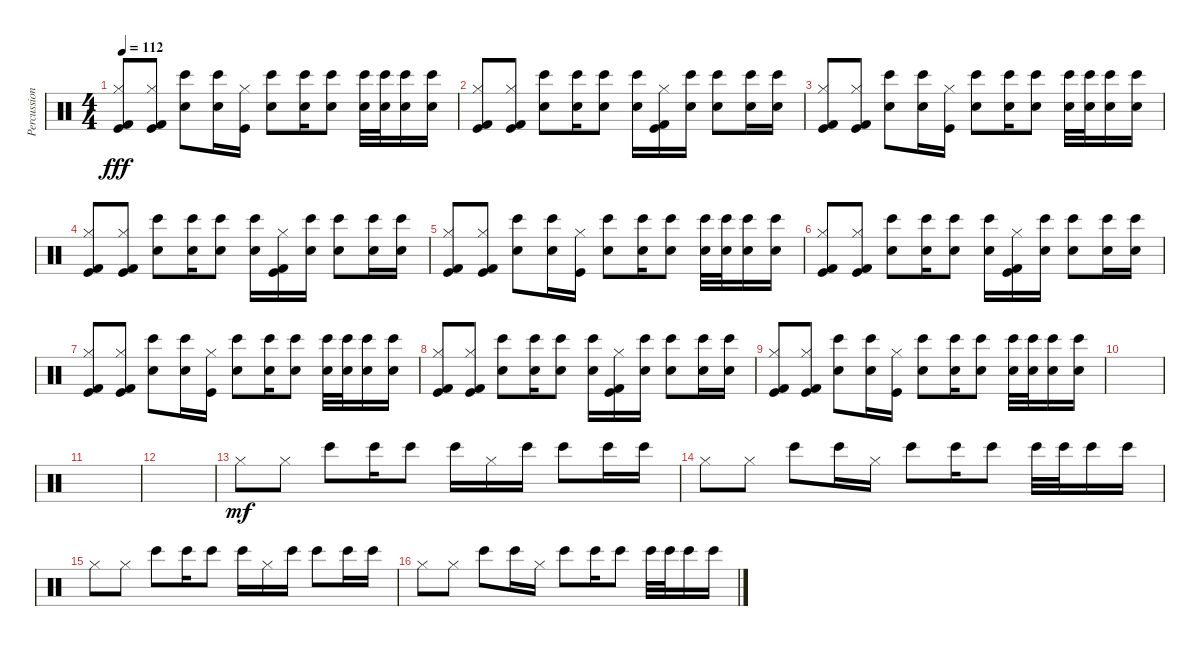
\track ("Percussion" "Percussion") {instrument percussion}
\staff {score}
\articulation defaults
\ts (4 4)
\tempo 112
\clef neutral
\ks c
("Kick (hit)" "Hi-Hat (closed)" "Kick (hit) 2").8{dy fff} ("Hi-Hat (closed)" "Kick (hit)" "Kick (hit) 2").8 ("Bongo High (hit)" "Snare (hit) 2").8 ("Bongo High (hit)" "Snare (hit) 2").16 ("Hi-Hat (closed)" "Kick (hit)").16 ("Snare (hit) 2" "Bongo High (hit)").8 ("Bongo High (hit)" "Snare (hit) 2").16 ("Bongo High (hit)" "Snare (hit) 2").8 ("Bongo High (hit)" "Snare (hit) 2").32 ("Bongo High (hit)" "Snare (hit) 2").32 ("Bongo High (hit)" "Snare (hit) 2").16 ("Bongo High (hit)" "Snare (hit) 2").16 |
("Kick (hit)" "Hi-Hat (closed)" "Kick (hit) 2").8 ("Hi-Hat (closed)" "Kick (hit)" "Kick (hit) 2").8 ("Bongo High (hit)" "Snare (hit) 2").8 ("Bongo High (hit)" "Snare (hit) 2").16 ("Bongo High (hit)" "Snare (hit) 2").8 ("Snare (hit) 2" "Bongo High (hit)").16 ("Hi-Hat (closed)" "Kick (hit) 2" "Kick (hit)").16 ("Bongo High (hit)" "Snare (hit) 2").16 ("Bongo High (hit)" "Snare (hit) 2").8 ("Bongo High (hit)" "Snare (hit) 2").16 ("Bongo High (hit)" "Snare (hit) 2").16 |
("Kick (hit)" "Hi-Hat (closed)" "Kick (hit) 2").8 ("Hi-Hat (closed)" "Kick (hit)" "Kick (hit) 2").8 ("Bongo High (hit)" "Snare (hit) 2").8 ("Bongo High (hit)" "Snare (hit) 2").16 ("Hi-Hat (closed)" "Kick (hit)").16 ("Snare (hit) 2" "Bongo High (hit)").8 ("Bongo High (hit)" "Snare (hit) 2").16 ("Bongo High (hit)" "Snare (hit) 2").8 ("Bongo High (hit)" "Snare (hit) 2").32 ("Bongo High (hit)" "Snare (hit) 2").32 ("Bongo High (hit)" "Snare (hit) 2").16 ("Bongo High (hit)" "Snare (hit) 2").16 |
("Kick (hit)" "Hi-Hat (closed)" "Kick (hit) 2").8 ("Hi-Hat (closed)" "Kick (hit)" "Kick (hit) 2").8 ("Bongo High (hit)" "Snare (hit) 2").8 ("Bongo High (hit)" "Snare (hit) 2").16 ("Bongo High (hit)" "Snare (hit) 2").8 ("Snare (hit) 2" "Bongo High (hit)").16 ("Hi-Hat (closed)" "Kick (hit) 2" "Kick (hit)").16 ("Bongo High (hit)" "Snare (hit) 2").16 ("Bongo High (hit)" "Snare (hit) 2").8 ("Bongo High (hit)" "Snare (hit) 2").16 ("Bongo High (hit)" "Snare (hit) 2").16 |
("Kick (hit)" "Hi-Hat (closed)" "Kick (hit) 2").8 ("Hi-Hat (closed)" "Kick (hit)" "Kick (hit) 2").8 ("Bongo High (hit)" "Snare (hit) 2").8 ("Bongo High (hit)" "Snare (hit) 2").16 ("Hi-Hat (closed)" "Kick (hit)").16 ("Snare (hit) 2" "Bongo High (hit)").8 ("Bongo High (hit)" "Snare (hit) 2").16 ("Bongo High (hit)" "Snare (hit) 2").8 ("Bongo High (hit)" "Snare (hit) 2").32 ("Bongo High (hit)" "Snare (hit) 2").32 ("Bongo High (hit)" "Snare (hit) 2").16 ("Bongo High (hit)" "Snare (hit) 2").16 |
("Kick (hit)" "Hi-Hat (closed)" "Kick (hit) 2").8 ("Hi-Hat (closed)" "Kick (hit)" "Kick (hit) 2").8 ("Bongo High (hit)" "Snare (hit) 2").8 ("Bongo High (hit)" "Snare (hit) 2").16 ("Bongo High (hit)" "Snare (hit) 2").8 ("Snare (hit) 2" "Bongo High (hit)").16 ("Hi-Hat (closed)" "Kick (hit) 2" "Kick (hit)").16 ("Bongo High (hit)" "Snare (hit) 2").16 ("Bongo High (hit)" "Snare (hit) 2").8 ("Bongo High (hit)" "Snare (hit) 2").16 ("Bongo High (hit)" "Snare (hit) 2").16 |
("Kick (hit)" "Hi-Hat (closed)" "Kick (hit) 2").8 ("Hi-Hat (closed)" "Kick (hit)" "Kick (hit) 2").8 ("Bongo High (hit)" "Snare (hit) 2").8 ("Bongo High (hit)" "Snare (hit) 2").16 ("Hi-Hat (closed)" "Kick (hit)").16 ("Snare (hit) 2" "Bongo High (hit)").8 ("Bongo High (hit)" "Snare (hit) 2").16 ("Bongo High (hit)" "Snare (hit) 2").8 ("Bongo High (hit)" "Snare (hit) 2").32 ("Bongo High (hit)" "Snare (hit) 2").32 ("Bongo High (hit)" "Snare (hit) 2").16 ("Bongo High (hit)" "Snare (hit) 2").16 |
("Kick (hit)" "Hi-Hat (closed)" "Kick (hit) 2").8 ("Hi-Hat (closed)" "Kick (hit)" "Kick (hit) 2").8 ("Bongo High (hit)" "Snare (hit) 2").8 ("Bongo High (hit)" "Snare (hit) 2").16 ("Bongo High (hit)" "Snare (hit) 2").8 ("Snare (hit) 2" "Bongo High (hit)").16 ("Hi-Hat (closed)" "Kick (hit) 2" "Kick (hit)").16 ("Bongo High (hit)" "Snare (hit) 2").16 ("Bongo High (hit)" "Snare (hit) 2").8 ("Bongo High (hit)" "Snare (hit) 2").16 ("Bongo High (hit)" "Snare (hit) 2").16 |
("Kick (hit)" "Hi-Hat (closed)" "Kick (hit) 2").8 ("Hi-Hat (closed)" "Kick (hit)" "Kick (hit) 2").8 ("Bongo High (hit)" "Snare (hit) 2").8 ("Bongo High (hit)" "Snare (hit) 2").16 ("Hi-Hat (closed)" "Kick (hit)").16 ("Snare (hit) 2" "Bongo High (hit)").8 ("Bongo High (hit)" "Snare (hit) 2").16 ("Bongo High (hit)" "Snare (hit) 2").8 ("Bongo High (hit)" "Snare (hit) 2").32 ("Bongo High (hit)" "Snare (hit) 2").32 ("Bongo High (hit)" "Snare (hit) 2").16 ("Bongo High (hit)" "Snare (hit) 2").16 |
|
|
|
"Hi-Hat (closed)".8{dy mf} "Hi-Hat (closed)".8 "Bongo High (hit)".8 "Bongo High (hit)".16 "Bongo High (hit)".8 "Bongo High (hit)".16 "Hi-Hat (closed)".16 "Bongo High (hit)".16 "Bongo High (hit)".8 "Bongo High (hit)".16 "Bongo High (hit)".16 |
"Hi-Hat (closed)".8 "Hi-Hat (closed)".8 "Bongo High (hit)".8 "Bongo High (hit)".16 "Hi-Hat (closed)".16 "Bongo High (hit)".8 "Bongo High (hit)".16 "Bongo High (hit)".8 "Bongo High (hit)".32 "Bongo High (hit)".32 "Bongo High (hit)".16 "Bongo High (hit)".16 |
"Hi-Hat (closed)".8 "Hi-Hat (closed)".8 "Bongo High (hit)".8 "Bongo High (hit)".16 "Bongo High (hit)".8 "Bongo High (hit)".16 "Hi-Hat (closed)".16 "Bongo High (hit)".16 "Bongo High (hit)".8 "Bongo High (hit)".16 "Bongo High (hit)".16 |
"Hi-Hat (closed)".8 "Hi-Hat (closed)".8 "Bongo High (hit)".8 "Bongo High (hit)".16 "Hi-Hat (closed)".16 "Bongo High (hit)".8 "Bongo High (hit)".16 "Bongo High (hit)".8 "Bongo High (hit)".32 "Bongo High (hit)".32 "Bongo High (hit)".16 "Bongo High (hit)".16
